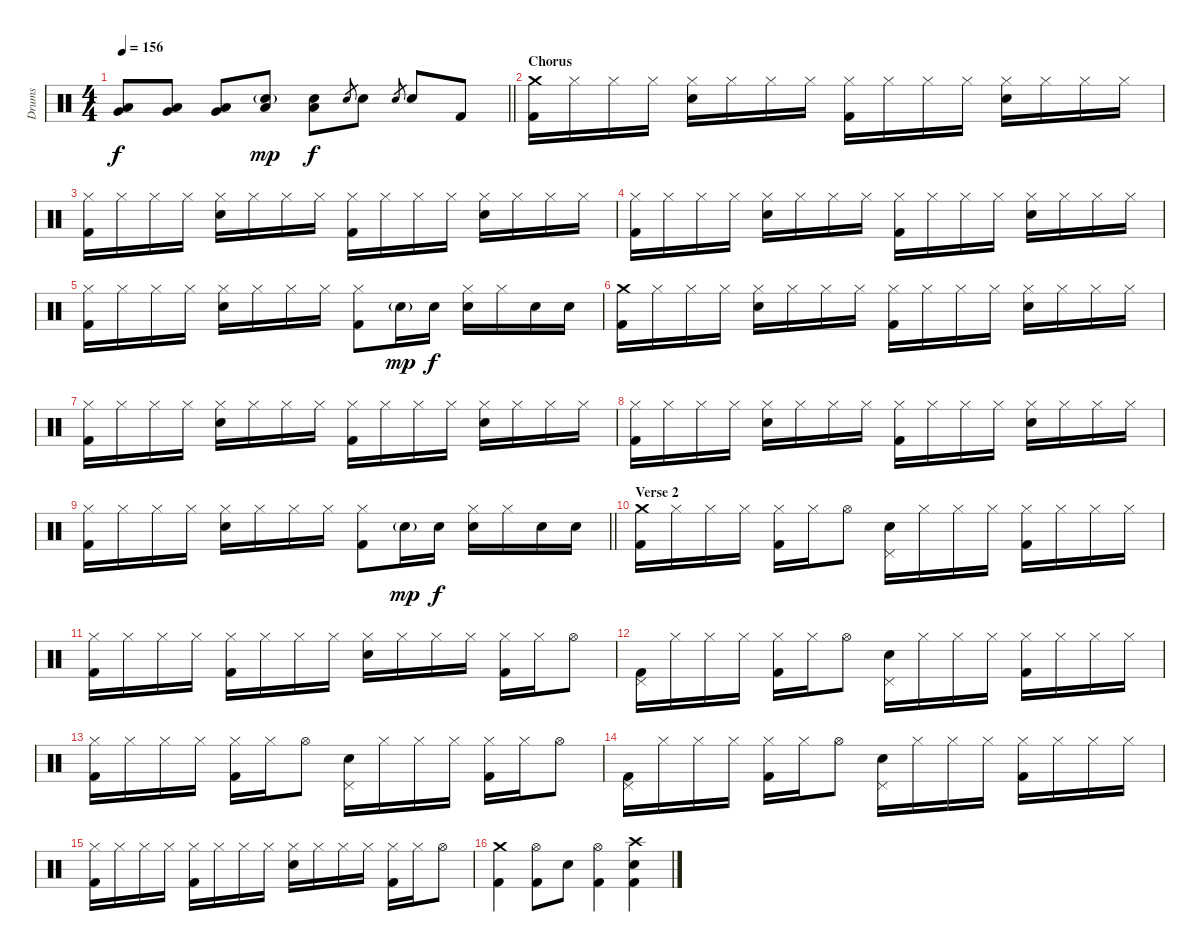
\track ("Drums" "Drums") {instrument percussion}
\staff {score}
\articulation defaults
\ts (4 4)
\tempo 156
\clef neutral
\barLineRight lightlight
\ks c
("Low Tom (hit)" "Very Low Tom (hit)").8{dy f} ("Low Tom (hit)" "Very Low Tom (hit)").8 ("Low Tom (hit)" "Very Low Tom (hit)").8 ("Electric Snare (hit)"{g} "Low Tom (hit)").8{dy mp} ("Electric Snare (hit)" "Low Tom (hit)").8{dy f} "Electric Snare (hit)".8{gr} "Electric Snare (hit)".8 "Electric Snare (hit)".8{gr} "Electric Snare (hit)".8 "Kick (hit) 2".8 |
\section ("" "Chorus")
("Crash medium (hit)" "Kick (hit) 2").16 "Hi-Hat (closed)".16 "Hi-Hat (closed)".16 "Hi-Hat (closed)".16 ("Hi-Hat (closed)" "Electric Snare (hit)").16 "Hi-Hat (closed)".16 "Hi-Hat (closed)".16 "Hi-Hat (closed)".16 ("Hi-Hat (closed)" "Kick (hit) 2").16 "Hi-Hat (closed)".16 "Hi-Hat (closed)".16 "Hi-Hat (closed)".16 ("Hi-Hat (closed)" "Electric Snare (hit)").16 "Hi-Hat (closed)".16 "Hi-Hat (closed)".16 "Hi-Hat (closed)".16 |
("Hi-Hat (closed)" "Kick (hit) 2").16 "Hi-Hat (closed)".16 "Hi-Hat (closed)".16 "Hi-Hat (closed)".16 ("Hi-Hat (closed)" "Electric Snare (hit)").16 "Hi-Hat (closed)".16 "Hi-Hat (closed)".16 "Hi-Hat (closed)".16 ("Hi-Hat (closed)" "Kick (hit) 2").16 "Hi-Hat (closed)".16 "Hi-Hat (closed)".16 "Hi-Hat (closed)".16 ("Hi-Hat (closed)" "Electric Snare (hit)").16 "Hi-Hat (closed)".16 "Hi-Hat (closed)".16 "Hi-Hat (closed)".16 |
("Hi-Hat (closed)" "Kick (hit) 2").16 "Hi-Hat (closed)".16 "Hi-Hat (closed)".16 "Hi-Hat (closed)".16 ("Hi-Hat (closed)" "Electric Snare (hit)").16 "Hi-Hat (closed)".16 "Hi-Hat (closed)".16 "Hi-Hat (closed)".16 ("Hi-Hat (closed)" "Kick (hit) 2").16 "Hi-Hat (closed)".16 "Hi-Hat (closed)".16 "Hi-Hat (closed)".16 ("Hi-Hat (closed)" "Electric Snare (hit)").16 "Hi-Hat (closed)".16 "Hi-Hat (closed)".16 "Hi-Hat (closed)".16 |
("Hi-Hat (closed)" "Kick (hit) 2").16 "Hi-Hat (closed)".16 "Hi-Hat (closed)".16 "Hi-Hat (closed)".16 ("Hi-Hat (closed)" "Electric Snare (hit)").16 "Hi-Hat (closed)".16 "Hi-Hat (closed)".16 "Hi-Hat (closed)".16 ("Hi-Hat (closed)" "Kick (hit) 2").8 "Electric Snare (hit)"{g}.16{dy mp} "Electric Snare (hit)".16{dy f} ("Hi-Hat (closed)" "Electric Snare (hit)").16 "Hi-Hat (closed)".16 "Electric Snare (hit)".16 "Electric Snare (hit)".16 |
("Crash medium (hit)" "Kick (hit) 2").16 "Hi-Hat (closed)".16 "Hi-Hat (closed)".16 "Hi-Hat (closed)".16 ("Hi-Hat (closed)" "Electric Snare (hit)").16 "Hi-Hat (closed)".16 "Hi-Hat (closed)".16 "Hi-Hat (closed)".16 ("Hi-Hat (closed)" "Kick (hit) 2").16 "Hi-Hat (closed)".16 "Hi-Hat (closed)".16 "Hi-Hat (closed)".16 ("Hi-Hat (closed)" "Electric Snare (hit)").16 "Hi-Hat (closed)".16 "Hi-Hat (closed)".16 "Hi-Hat (closed)".16 |
("Hi-Hat (closed)" "Kick (hit) 2").16 "Hi-Hat (closed)".16 "Hi-Hat (closed)".16 "Hi-Hat (closed)".16 ("Hi-Hat (closed)" "Electric Snare (hit)").16 "Hi-Hat (closed)".16 "Hi-Hat (closed)".16 "Hi-Hat (closed)".16 ("Hi-Hat (closed)" "Kick (hit) 2").16 "Hi-Hat (closed)".16 "Hi-Hat (closed)".16 "Hi-Hat (closed)".16 ("Hi-Hat (closed)" "Electric Snare (hit)").16 "Hi-Hat (closed)".16 "Hi-Hat (closed)".16 "Hi-Hat (closed)".16 |
("Hi-Hat (closed)" "Kick (hit) 2").16 "Hi-Hat (closed)".16 "Hi-Hat (closed)".16 "Hi-Hat (closed)".16 ("Hi-Hat (closed)" "Electric Snare (hit)").16 "Hi-Hat (closed)".16 "Hi-Hat (closed)".16 "Hi-Hat (closed)".16 ("Hi-Hat (closed)" "Kick (hit) 2").16 "Hi-Hat (closed)".16 "Hi-Hat (closed)".16 "Hi-Hat (closed)".16 ("Hi-Hat (closed)" "Electric Snare (hit)").16 "Hi-Hat (closed)".16 "Hi-Hat (closed)".16 "Hi-Hat (closed)".16 |
\barLineRight lightlight
("Hi-Hat (closed)" "Kick (hit) 2").16 "Hi-Hat (closed)".16 "Hi-Hat (closed)".16 "Hi-Hat (closed)".16 ("Hi-Hat (closed)" "Electric Snare (hit)").16 "Hi-Hat (closed)".16 "Hi-Hat (closed)".16 "Hi-Hat (closed)".16 ("Hi-Hat (closed)" "Kick (hit) 2").8 "Electric Snare (hit)"{g}.16{dy mp} "Electric Snare (hit)".16{dy f} ("Hi-Hat (closed)" "Electric Snare (hit)").16 "Hi-Hat (closed)".16 "Electric Snare (hit)".16 "Electric Snare (hit)".16 |
\section ("" "Verse 2")
("Crash medium (hit)" "Kick (hit) 2").16 "Hi-Hat (closed)".16 "Hi-Hat (closed)".16 "Hi-Hat (closed)".16 ("Hi-Hat (closed)" "Kick (hit) 2").16 "Hi-Hat (closed)".16 "Hi-Hat (open)".8 ("Pedal Hi-Hat (hit)" "Electric Snare (hit)").16 "Hi-Hat (closed)".16 "Hi-Hat (closed)".16 "Hi-Hat (closed)".16 ("Hi-Hat (closed)" "Kick (hit) 2").16 "Hi-Hat (closed)".16 "Hi-Hat (closed)".16 "Hi-Hat (closed)".16 |
("Hi-Hat (closed)" "Kick (hit) 2").16 "Hi-Hat (closed)".16 "Hi-Hat (closed)".16 "Hi-Hat (closed)".16 ("Hi-Hat (closed)" "Kick (hit) 2").16 "Hi-Hat (closed)".16 "Hi-Hat (closed)".16 "Hi-Hat (closed)".16 ("Hi-Hat (closed)" "Electric Snare (hit)").16 "Hi-Hat (closed)".16 "Hi-Hat (closed)".16 "Hi-Hat (closed)".16 ("Hi-Hat (closed)" "Kick (hit) 2").16 "Hi-Hat (closed)".16 "Hi-Hat (open)".8 |
("Pedal Hi-Hat (hit)" "Kick (hit) 2").16 "Hi-Hat (closed)".16 "Hi-Hat (closed)".16 "Hi-Hat (closed)".16 ("Hi-Hat (closed)" "Kick (hit) 2").16 "Hi-Hat (closed)".16 "Hi-Hat (open)".8 ("Pedal Hi-Hat (hit)" "Electric Snare (hit)").16 "Hi-Hat (closed)".16 "Hi-Hat (closed)".16 "Hi-Hat (closed)".16 ("Hi-Hat (closed)" "Kick (hit) 2").16 "Hi-Hat (closed)".16 "Hi-Hat (closed)".16 "Hi-Hat (closed)".16 |
("Hi-Hat (closed)" "Kick (hit) 2").16 "Hi-Hat (closed)".16 "Hi-Hat (closed)".16 "Hi-Hat (closed)".16 ("Hi-Hat (closed)" "Kick (hit) 2").16 "Hi-Hat (closed)".16 "Hi-Hat (open)".8 ("Pedal Hi-Hat (hit)" "Electric Snare (hit)").16 "Hi-Hat (closed)".16 "Hi-Hat (closed)".16 "Hi-Hat (closed)".16 ("Hi-Hat (closed)" "Kick (hit) 2").16 "Hi-Hat (closed)".16 "Hi-Hat (open)".8 |
("Pedal Hi-Hat (hit)" "Kick (hit) 2").16 "Hi-Hat (closed)".16 "Hi-Hat (closed)".16 "Hi-Hat (closed)".16 ("Hi-Hat (closed)" "Kick (hit) 2").16 "Hi-Hat (closed)".16 "Hi-Hat (open)".8 ("Pedal Hi-Hat (hit)" "Electric Snare (hit)").16 "Hi-Hat (closed)".16 "Hi-Hat (closed)".16 "Hi-Hat (closed)".16 ("Hi-Hat (closed)" "Kick (hit) 2").16 "Hi-Hat (closed)".16 "Hi-Hat (closed)".16 "Hi-Hat (closed)".16 |
("Hi-Hat (closed)" "Kick (hit) 2").16 "Hi-Hat (closed)".16 "Hi-Hat (closed)".16 "Hi-Hat (closed)".16 ("Hi-Hat (closed)" "Kick (hit) 2").16 "Hi-Hat (closed)".16 "Hi-Hat (closed)".16 "Hi-Hat (closed)".16 ("Hi-Hat (closed)" "Electric Snare (hit)").16 "Hi-Hat (closed)".16 "Hi-Hat (closed)".16 "Hi-Hat (closed)".16 ("Hi-Hat (closed)" "Kick (hit) 2").16 "Hi-Hat (closed)".16 "Hi-Hat (open)".8 |
("Crash medium (hit)" "Kick (hit) 2").4 ("Hi-Hat (open)" "Kick (hit) 2").8 "Electric Snare (hit)".8 ("Hi-Hat (open)" "Kick (hit) 2").4 ("Crash high (hit)" "Electric Snare (hit)" "Kick (hit) 2").4
